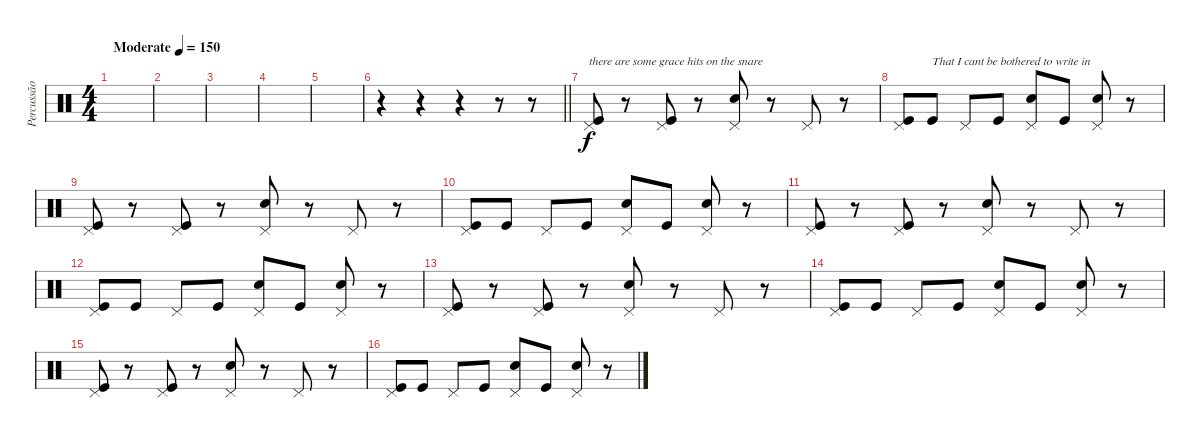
\track ("Percussão" "Percussão") {instrument percussion}
\staff {score}
\articulation defaults
\ts (4 4)
\tempo (150 "Moderate")
\clef neutral
\ks c
|
|
|
|
|
\barLineRight lightlight
r.4 r.4 r.4 r.8 r.8 |
("Pedal Hi-Hat (hit)" "Kick (hit)").8{txt "there are some grace hits on the snare"} r.8 ("Pedal Hi-Hat (hit)" "Kick (hit)").8 r.8 ("Pedal Hi-Hat (hit)" "Snare (hit) 2").8 r.8 "Pedal Hi-Hat (hit)".8 r.8 |
("Pedal Hi-Hat (hit)" "Kick (hit)").8 "Kick (hit)".8{txt "That I cant be bothered to write in"} "Pedal Hi-Hat (hit)".8 "Kick (hit)".8 ("Pedal Hi-Hat (hit)" "Snare (hit) 2").8 "Kick (hit)".8 ("Pedal Hi-Hat (hit)" "Snare (hit) 2").8 r.8 |
("Pedal Hi-Hat (hit)" "Kick (hit)").8 r.8 ("Pedal Hi-Hat (hit)" "Kick (hit)").8 r.8 ("Pedal Hi-Hat (hit)" "Snare (hit) 2").8 r.8 "Pedal Hi-Hat (hit)".8 r.8 |
("Pedal Hi-Hat (hit)" "Kick (hit)").8 "Kick (hit)".8 "Pedal Hi-Hat (hit)".8 "Kick (hit)".8 ("Pedal Hi-Hat (hit)" "Snare (hit) 2").8 "Kick (hit)".8 ("Pedal Hi-Hat (hit)" "Snare (hit) 2").8 r.8 |
("Pedal Hi-Hat (hit)" "Kick (hit)").8 r.8 ("Pedal Hi-Hat (hit)" "Kick (hit)").8 r.8 ("Pedal Hi-Hat (hit)" "Snare (hit) 2").8 r.8 "Pedal Hi-Hat (hit)".8 r.8 |
("Pedal Hi-Hat (hit)" "Kick (hit)").8 "Kick (hit)".8 "Pedal Hi-Hat (hit)".8 "Kick (hit)".8 ("Pedal Hi-Hat (hit)" "Snare (hit) 2").8 "Kick (hit)".8 ("Pedal Hi-Hat (hit)" "Snare (hit) 2").8 r.8 |
("Pedal Hi-Hat (hit)" "Kick (hit)").8 r.8 ("Pedal Hi-Hat (hit)" "Kick (hit)").8 r.8 ("Pedal Hi-Hat (hit)" "Snare (hit) 2").8 r.8 "Pedal Hi-Hat (hit)".8 r.8 |
("Pedal Hi-Hat (hit)" "Kick (hit)").8 "Kick (hit)".8 "Pedal Hi-Hat (hit)".8 "Kick (hit)".8 ("Pedal Hi-Hat (hit)" "Snare (hit) 2").8 "Kick (hit)".8 ("Pedal Hi-Hat (hit)" "Snare (hit) 2").8 r.8 |
("Pedal Hi-Hat (hit)" "Kick (hit)").8 r.8 ("Pedal Hi-Hat (hit)" "Kick (hit)").8 r.8 ("Pedal Hi-Hat (hit)" "Snare (hit) 2").8 r.8 "Pedal Hi-Hat (hit)".8 r.8 |
("Pedal Hi-Hat (hit)" "Kick (hit)").8 "Kick (hit)".8 "Pedal Hi-Hat (hit)".8 "Kick (hit)".8 ("Pedal Hi-Hat (hit)" "Snare (hit) 2").8 "Kick (hit)".8 ("Pedal Hi-Hat (hit)" "Snare (hit) 2").8 r.8
